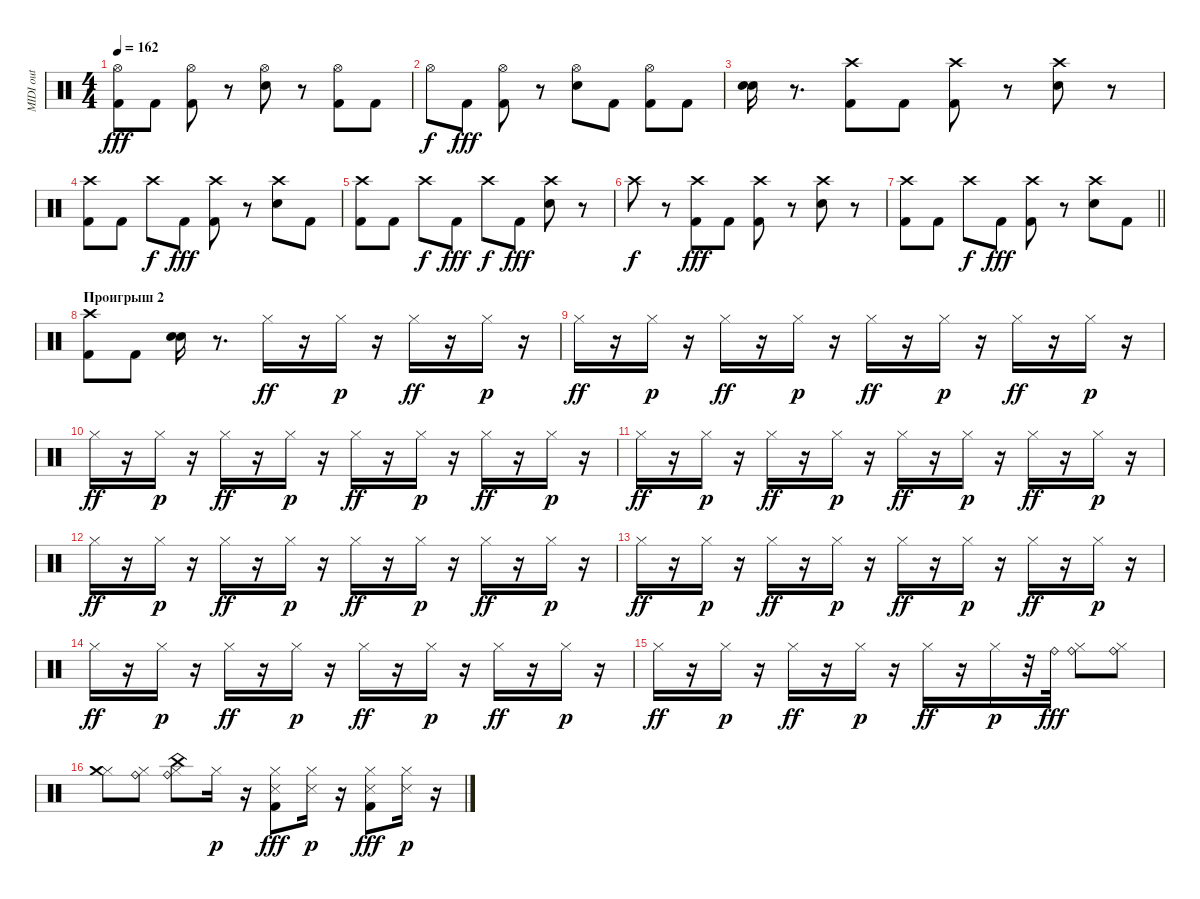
\track ("MIDI out" "MIDI out") {instrument percussion}
\staff {score}
\articulation defaults
\ts (4 4)
\tempo 162
\clef neutral
\ks c
("Hi-Hat (open)" "Kick (hit) 2").8{dy fff} "Kick (hit) 2".8 ("Kick (hit) 2" "Hi-Hat (open)").8 r.8 ("Electric Snare (hit)" "Hi-Hat (open)").8 r.8 ("Hi-Hat (open)" "Kick (hit) 2").8 "Kick (hit) 2".8 |
"Hi-Hat (open)".8{dy f} "Kick (hit) 2".8{dy fff} ("Kick (hit) 2" "Hi-Hat (open)").8 r.8 ("Electric Snare (hit)" "Hi-Hat (open)").8 "Kick (hit) 2".8 ("Hi-Hat (open)" "Kick (hit) 2").8 "Kick (hit) 2".8 |
("Snare (hit) 2" "Electric Snare (hit)").16 r.8{d} ("Kick (hit) 2" "Crash high (hit)").8 "Kick (hit) 2".8 ("Crash high (hit)" "Kick (hit) 2").8 r.8 ("Crash high (hit)" "Electric Snare (hit)").8 r.8 |
("Kick (hit) 2" "Crash high (hit)").8 "Kick (hit) 2".8 "Crash high (hit)".8{dy f} "Kick (hit) 2".8{dy fff} ("Crash high (hit)" "Kick (hit) 2").8 r.8 ("Crash high (hit)" "Electric Snare (hit)").8 "Kick (hit) 2".8 |
("Kick (hit) 2" "Crash high (hit)").8 "Kick (hit) 2".8 "Crash high (hit)".8{dy f} "Kick (hit) 2".8{dy fff} "Crash high (hit)".8{dy f} "Kick (hit) 2".8{dy fff} ("Electric Snare (hit)" "Crash high (hit)").8 r.8 |
"Crash high (hit)".8{dy f} r.8 ("Crash high (hit)" "Kick (hit) 2").8{dy fff} "Kick (hit) 2".8 ("Kick (hit) 2" "Crash high (hit)").8 r.8 ("Electric Snare (hit)" "Crash high (hit)").8 r.8 |
\barLineRight lightlight
("Crash high (hit)" "Kick (hit) 2").8 "Kick (hit) 2".8 "Crash high (hit)".8{dy f} "Kick (hit) 2".8{dy fff} ("Kick (hit) 2" "Crash high (hit)").8 r.8 ("Electric Snare (hit)" "Crash high (hit)").8 "Kick (hit) 2".8 |
\section ("" "Проигрыш 2")
("Crash high (hit)" "Kick (hit) 2").8 "Kick (hit) 2".8 ("Snare (hit) 2" "Electric Snare (hit)").16 r.8{d} "Hi-Hat (closed)".16{dy ff} r.16 "Hi-Hat (closed)".16{dy p} r.16 "Hi-Hat (closed)".16{dy ff} r.16 "Hi-Hat (closed)".16{dy p} r.16 |
"Hi-Hat (closed)".16{dy ff} r.16 "Hi-Hat (closed)".16{dy p} r.16 "Hi-Hat (closed)".16{dy ff} r.16 "Hi-Hat (closed)".16{dy p} r.16 "Hi-Hat (closed)".16{dy ff} r.16 "Hi-Hat (closed)".16{dy p} r.16 "Hi-Hat (closed)".16{dy ff} r.16 "Hi-Hat (closed)".16{dy p} r.16 |
"Hi-Hat (closed)".16{dy ff} r.16 "Hi-Hat (closed)".16{dy p} r.16 "Hi-Hat (closed)".16{dy ff} r.16 "Hi-Hat (closed)".16{dy p} r.16 "Hi-Hat (closed)".16{dy ff} r.16 "Hi-Hat (closed)".16{dy p} r.16 "Hi-Hat (closed)".16{dy ff} r.16 "Hi-Hat (closed)".16{dy p} r.16 |
"Hi-Hat (closed)".16{dy ff} r.16 "Hi-Hat (closed)".16{dy p} r.16 "Hi-Hat (closed)".16{dy ff} r.16 "Hi-Hat (closed)".16{dy p} r.16 "Hi-Hat (closed)".16{dy ff} r.16 "Hi-Hat (closed)".16{dy p} r.16 "Hi-Hat (closed)".16{dy ff} r.16 "Hi-Hat (closed)".16{dy p} r.16 |
"Hi-Hat (closed)".16{dy ff} r.16 "Hi-Hat (closed)".16{dy p} r.16 "Hi-Hat (closed)".16{dy ff} r.16 "Hi-Hat (closed)".16{dy p} r.16 "Hi-Hat (closed)".16{dy ff} r.16 "Hi-Hat (closed)".16{dy p} r.16 "Hi-Hat (closed)".16{dy ff} r.16 "Hi-Hat (closed)".16{dy p} r.16 |
"Hi-Hat (closed)".16{dy ff} r.16 "Hi-Hat (closed)".16{dy p} r.16 "Hi-Hat (closed)".16{dy ff} r.16 "Hi-Hat (closed)".16{dy p} r.16 "Hi-Hat (closed)".16{dy ff} r.16 "Hi-Hat (closed)".16{dy p} r.16 "Hi-Hat (closed)".16{dy ff} r.16 "Hi-Hat (closed)".16{dy p} r.16 |
"Hi-Hat (closed)".16{dy ff} r.16 "Hi-Hat (closed)".16{dy p} r.16 "Hi-Hat (closed)".16{dy ff} r.16 "Hi-Hat (closed)".16{dy p} r.16 "Hi-Hat (closed)".16{dy ff} r.16 "Hi-Hat (closed)".16{dy p} r.16 "Hi-Hat (closed)".16{dy ff} r.16 "Hi-Hat (closed)".16{dy p} r.16 |
"Hi-Hat (closed)".16{dy ff} r.16 "Hi-Hat (closed)".16{dy p} r.16 "Hi-Hat (closed)".16{dy ff} r.16 "Hi-Hat (closed)".16{dy p} r.16 "Hi-Hat (closed)".16{dy ff} r.16 "Hi-Hat (closed)".16{dy p} r.32 "Ride (bell)".32{dy fff} ("Hi-Hat (closed)" "Ride (bell)").8 ("Hi-Hat (closed)" "Ride (bell)").8 |
("Hi-Hat (closed)" "Crash medium (hit)").8 ("Hi-Hat (closed)" "Ride (bell)").8 ("Hi-Hat (closed)" "China (hit)" "Ride (bell)").8 "Hi-Hat (closed)".16{dy p} r.16 ("Hi-Hat (closed)" "Snare (side stick) 3" "Kick (hit) 2").8{dy fff} ("Hi-Hat (closed)" "Snare (side stick) 3").16{dy p} r.16 ("Hi-Hat (closed)" "Snare (side stick) 3" "Kick (hit) 2").8{dy fff} ("Hi-Hat (closed)" "Snare (side stick) 3").16{dy p} r.16
